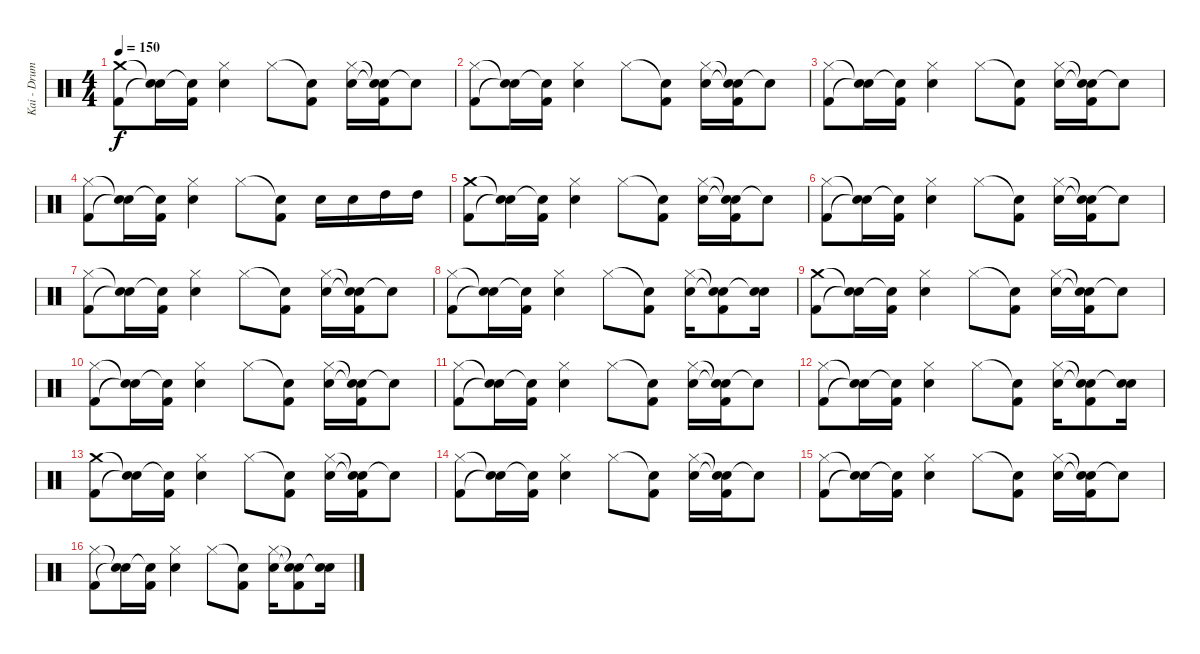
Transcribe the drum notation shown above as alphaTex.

\track ("Kai - Drums" "Kai - Drum") {instrument percussion}
\staff {score}
\articulation defaults
\ts (4 4)
\tempo 150
\clef neutral
\ks c
("Crash medium (hit)" "Kick (hit) 2").8{dy f} ("Snare (hit)"{t} "Snare (hit)"{t}).16 ("Snare (hit)"{t} "Kick (hit) 2").16 ("Hi-Hat (closed)" "Snare (hit) 2").4 "Hi-Hat (closed)".8 ("Snare (hit)"{t} "Kick (hit) 2").8 ("Hi-Hat (closed)" "Snare (hit) 2").16 ("Snare (hit)"{t} "Snare (hit)"{t} "Kick (hit) 2").16 "Snare (hit)"{t}.8 |
("Hi-Hat (closed)" "Kick (hit) 2").8 ("Snare (hit)"{t} "Snare (hit)"{t}).16 ("Snare (hit)"{t} "Kick (hit) 2").16 ("Hi-Hat (closed)" "Snare (hit) 2").4 "Hi-Hat (closed)".8 ("Snare (hit)"{t} "Kick (hit) 2").8 ("Hi-Hat (closed)" "Snare (hit) 2").16 ("Snare (hit)"{t} "Snare (hit)"{t} "Kick (hit) 2").16 "Snare (hit)"{t}.8 |
("Hi-Hat (closed)" "Kick (hit) 2").8 ("Snare (hit)"{t} "Snare (hit)"{t}).16 ("Snare (hit)"{t} "Kick (hit) 2").16 ("Hi-Hat (closed)" "Snare (hit) 2").4 "Hi-Hat (closed)".8 ("Snare (hit)"{t} "Kick (hit) 2").8 ("Hi-Hat (closed)" "Snare (hit) 2").16 ("Snare (hit)"{t} "Snare (hit)"{t} "Kick (hit) 2").16 "Snare (hit)"{t}.8 |
("Hi-Hat (closed)" "Kick (hit) 2").8 ("Snare (hit)"{t} "Snare (hit)"{t}).16 ("Snare (hit)"{t} "Kick (hit) 2").16 ("Hi-Hat (closed)" "Snare (hit) 2").4 "Hi-Hat (closed)".8 ("Snare (hit)"{t} "Kick (hit) 2").8 "Snare (hit) 2".16 "Snare (hit) 2".16 "High Tom (hit)".16 "High Tom (hit)".16 |
("Crash medium (hit)" "Kick (hit) 2").8 ("Snare (hit)"{t} "Snare (hit)"{t}).16 ("Snare (hit)"{t} "Kick (hit) 2").16 ("Hi-Hat (closed)" "Snare (hit) 2").4 "Hi-Hat (closed)".8 ("Snare (hit)"{t} "Kick (hit) 2").8 ("Hi-Hat (closed)" "Snare (hit) 2").16 ("Snare (hit)"{t} "Snare (hit)"{t} "Kick (hit) 2").16 "Snare (hit)"{t}.8 |
("Hi-Hat (closed)" "Kick (hit) 2").8 ("Snare (hit)"{t} "Snare (hit)"{t}).16 ("Snare (hit)"{t} "Kick (hit) 2").16 ("Hi-Hat (closed)" "Snare (hit) 2").4 "Hi-Hat (closed)".8 ("Snare (hit)"{t} "Kick (hit) 2").8 ("Hi-Hat (closed)" "Snare (hit) 2").16 ("Snare (hit)"{t} "Snare (hit)"{t} "Kick (hit) 2").16 "Snare (hit)"{t}.8 |
("Hi-Hat (closed)" "Kick (hit) 2").8 ("Snare (hit)"{t} "Snare (hit)"{t}).16 ("Snare (hit)"{t} "Kick (hit) 2").16 ("Hi-Hat (closed)" "Snare (hit) 2").4 "Hi-Hat (closed)".8 ("Snare (hit)"{t} "Kick (hit) 2").8 ("Hi-Hat (closed)" "Snare (hit) 2").16 ("Snare (hit)"{t} "Snare (hit)"{t} "Kick (hit) 2").16 "Snare (hit)"{t}.8 |
("Hi-Hat (closed)" "Kick (hit) 2").8 ("Snare (hit)"{t} "Snare (hit)"{t}).16 ("Snare (hit)"{t} "Kick (hit) 2").16 ("Hi-Hat (closed)" "Snare (hit) 2").4 "Hi-Hat (closed)".8 ("Snare (hit)"{t} "Kick (hit) 2").8 ("Hi-Hat (closed)" "Snare (hit) 2").16 ("Snare (hit)"{t} "Snare (hit)"{t} "Kick (hit) 2").8 ("Snare (hit) 2" "Snare (hit)"{t}).16 |
("Crash medium (hit)" "Kick (hit) 2").8 ("Snare (hit)"{t} "Snare (hit)"{t}).16 ("Snare (hit)"{t} "Kick (hit) 2").16 ("Hi-Hat (closed)" "Snare (hit) 2").4 "Hi-Hat (closed)".8 ("Snare (hit)"{t} "Kick (hit) 2").8 ("Hi-Hat (closed)" "Snare (hit) 2").16 ("Snare (hit)"{t} "Snare (hit)"{t} "Kick (hit) 2").16 "Snare (hit)"{t}.8 |
("Hi-Hat (closed)" "Kick (hit) 2").8 ("Snare (hit)"{t} "Snare (hit)"{t}).16 ("Snare (hit)"{t} "Kick (hit) 2").16 ("Hi-Hat (closed)" "Snare (hit) 2").4 "Hi-Hat (closed)".8 ("Snare (hit)"{t} "Kick (hit) 2").8 ("Hi-Hat (closed)" "Snare (hit) 2").16 ("Snare (hit)"{t} "Snare (hit)"{t} "Kick (hit) 2").16 "Snare (hit)"{t}.8 |
("Hi-Hat (closed)" "Kick (hit) 2").8 ("Snare (hit)"{t} "Snare (hit)"{t}).16 ("Snare (hit)"{t} "Kick (hit) 2").16 ("Hi-Hat (closed)" "Snare (hit) 2").4 "Hi-Hat (closed)".8 ("Snare (hit)"{t} "Kick (hit) 2").8 ("Hi-Hat (closed)" "Snare (hit) 2").16 ("Snare (hit)"{t} "Snare (hit)"{t} "Kick (hit) 2").16 "Snare (hit)"{t}.8 |
("Hi-Hat (closed)" "Kick (hit) 2").8 ("Snare (hit)"{t} "Snare (hit)"{t}).16 ("Snare (hit)"{t} "Kick (hit) 2").16 ("Hi-Hat (closed)" "Snare (hit) 2").4 "Hi-Hat (closed)".8 ("Snare (hit)"{t} "Kick (hit) 2").8 ("Hi-Hat (closed)" "Snare (hit) 2").16 ("Snare (hit)"{t} "Snare (hit)"{t} "Kick (hit) 2").8 ("Snare (hit) 2" "Snare (hit)"{t}).16 |
("Crash medium (hit)" "Kick (hit) 2").8 ("Snare (hit)"{t} "Snare (hit)"{t}).16 ("Snare (hit)"{t} "Kick (hit) 2").16 ("Hi-Hat (closed)" "Snare (hit) 2").4 "Hi-Hat (closed)".8 ("Snare (hit)"{t} "Kick (hit) 2").8 ("Hi-Hat (closed)" "Snare (hit) 2").16 ("Snare (hit)"{t} "Snare (hit)"{t} "Kick (hit) 2").16 "Snare (hit)"{t}.8 |
("Hi-Hat (closed)" "Kick (hit) 2").8 ("Snare (hit)"{t} "Snare (hit)"{t}).16 ("Snare (hit)"{t} "Kick (hit) 2").16 ("Hi-Hat (closed)" "Snare (hit) 2").4 "Hi-Hat (closed)".8 ("Snare (hit)"{t} "Kick (hit) 2").8 ("Hi-Hat (closed)" "Snare (hit) 2").16 ("Snare (hit)"{t} "Snare (hit)"{t} "Kick (hit) 2").16 "Snare (hit)"{t}.8 |
("Hi-Hat (closed)" "Kick (hit) 2").8 ("Snare (hit)"{t} "Snare (hit)"{t}).16 ("Snare (hit)"{t} "Kick (hit) 2").16 ("Hi-Hat (closed)" "Snare (hit) 2").4 "Hi-Hat (closed)".8 ("Snare (hit)"{t} "Kick (hit) 2").8 ("Hi-Hat (closed)" "Snare (hit) 2").16 ("Snare (hit)"{t} "Snare (hit)"{t} "Kick (hit) 2").16 "Snare (hit)"{t}.8 |
("Hi-Hat (closed)" "Kick (hit) 2").8 ("Snare (hit)"{t} "Snare (hit)"{t}).16 ("Snare (hit)"{t} "Kick (hit) 2").16 ("Hi-Hat (closed)" "Snare (hit) 2").4 "Hi-Hat (closed)".8 ("Snare (hit)"{t} "Kick (hit) 2").8 ("Hi-Hat (closed)" "Snare (hit) 2").16 ("Snare (hit)"{t} "Snare (hit)"{t} "Kick (hit) 2").8 ("Snare (hit) 2" "Snare (hit)"{t}).16
